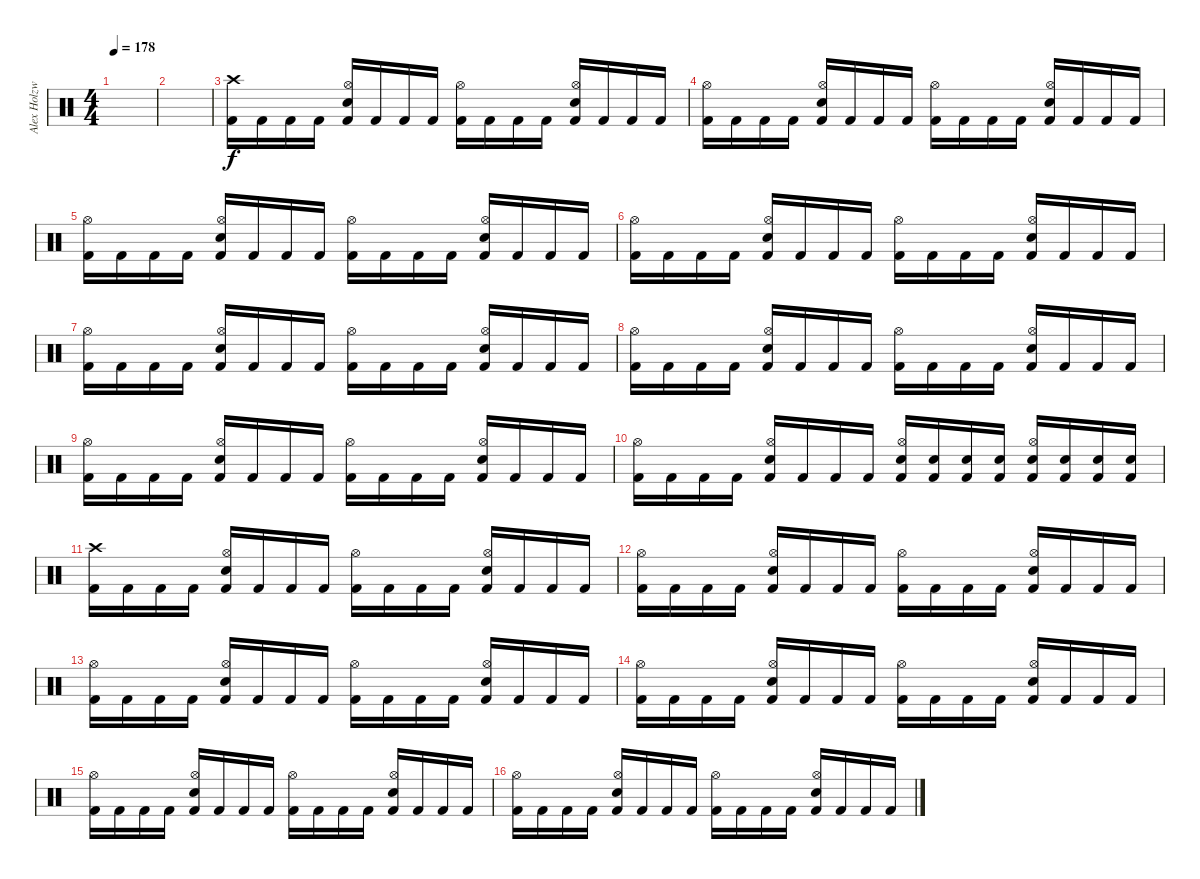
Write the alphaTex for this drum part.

\track ("Alex Holzwarth" "Alex Holzw") {instrument percussion}
\staff {score}
\articulation defaults
\ts (4 4)
\tempo 178
\clef neutral
\ks c
|
|
("Crash high (hit)" "Kick (hit) 2").16 "Kick (hit) 2".16 "Kick (hit) 2".16 "Kick (hit) 2".16 ("Hi-Hat (open)" "Electric Snare (hit)" "Kick (hit) 2").16 "Kick (hit) 2".16 "Kick (hit) 2".16 "Kick (hit) 2".16 ("Hi-Hat (open)" "Kick (hit) 2").16 "Kick (hit) 2".16 "Kick (hit) 2".16 "Kick (hit) 2".16 ("Hi-Hat (open)" "Electric Snare (hit)" "Kick (hit) 2").16 "Kick (hit) 2".16 "Kick (hit) 2".16 "Kick (hit) 2".16 |
("Hi-Hat (open)" "Kick (hit) 2").16 "Kick (hit) 2".16 "Kick (hit) 2".16 "Kick (hit) 2".16 ("Hi-Hat (open)" "Electric Snare (hit)" "Kick (hit) 2").16 "Kick (hit) 2".16 "Kick (hit) 2".16 "Kick (hit) 2".16 ("Hi-Hat (open)" "Kick (hit) 2").16 "Kick (hit) 2".16 "Kick (hit) 2".16 "Kick (hit) 2".16 ("Hi-Hat (open)" "Electric Snare (hit)" "Kick (hit) 2").16 "Kick (hit) 2".16 "Kick (hit) 2".16 "Kick (hit) 2".16 |
("Hi-Hat (open)" "Kick (hit) 2").16 "Kick (hit) 2".16 "Kick (hit) 2".16 "Kick (hit) 2".16 ("Hi-Hat (open)" "Electric Snare (hit)" "Kick (hit) 2").16 "Kick (hit) 2".16 "Kick (hit) 2".16 "Kick (hit) 2".16 ("Hi-Hat (open)" "Kick (hit) 2").16 "Kick (hit) 2".16 "Kick (hit) 2".16 "Kick (hit) 2".16 ("Hi-Hat (open)" "Electric Snare (hit)" "Kick (hit) 2").16 "Kick (hit) 2".16 "Kick (hit) 2".16 "Kick (hit) 2".16 |
("Hi-Hat (open)" "Kick (hit) 2").16 "Kick (hit) 2".16 "Kick (hit) 2".16 "Kick (hit) 2".16 ("Hi-Hat (open)" "Electric Snare (hit)" "Kick (hit) 2").16 "Kick (hit) 2".16 "Kick (hit) 2".16 "Kick (hit) 2".16 ("Hi-Hat (open)" "Kick (hit) 2").16 "Kick (hit) 2".16 "Kick (hit) 2".16 "Kick (hit) 2".16 ("Hi-Hat (open)" "Electric Snare (hit)" "Kick (hit) 2").16 "Kick (hit) 2".16 "Kick (hit) 2".16 "Kick (hit) 2".16 |
("Hi-Hat (open)" "Kick (hit) 2").16 "Kick (hit) 2".16 "Kick (hit) 2".16 "Kick (hit) 2".16 ("Hi-Hat (open)" "Electric Snare (hit)" "Kick (hit) 2").16 "Kick (hit) 2".16 "Kick (hit) 2".16 "Kick (hit) 2".16 ("Hi-Hat (open)" "Kick (hit) 2").16 "Kick (hit) 2".16 "Kick (hit) 2".16 "Kick (hit) 2".16 ("Hi-Hat (open)" "Electric Snare (hit)" "Kick (hit) 2").16 "Kick (hit) 2".16 "Kick (hit) 2".16 "Kick (hit) 2".16 |
("Hi-Hat (open)" "Kick (hit) 2").16 "Kick (hit) 2".16 "Kick (hit) 2".16 "Kick (hit) 2".16 ("Hi-Hat (open)" "Electric Snare (hit)" "Kick (hit) 2").16 "Kick (hit) 2".16 "Kick (hit) 2".16 "Kick (hit) 2".16 ("Hi-Hat (open)" "Kick (hit) 2").16 "Kick (hit) 2".16 "Kick (hit) 2".16 "Kick (hit) 2".16 ("Hi-Hat (open)" "Electric Snare (hit)" "Kick (hit) 2").16 "Kick (hit) 2".16 "Kick (hit) 2".16 "Kick (hit) 2".16 |
("Hi-Hat (open)" "Kick (hit) 2").16 "Kick (hit) 2".16 "Kick (hit) 2".16 "Kick (hit) 2".16 ("Hi-Hat (open)" "Electric Snare (hit)" "Kick (hit) 2").16 "Kick (hit) 2".16 "Kick (hit) 2".16 "Kick (hit) 2".16 ("Hi-Hat (open)" "Kick (hit) 2").16 "Kick (hit) 2".16 "Kick (hit) 2".16 "Kick (hit) 2".16 ("Hi-Hat (open)" "Electric Snare (hit)" "Kick (hit) 2").16 "Kick (hit) 2".16 "Kick (hit) 2".16 "Kick (hit) 2".16 |
("Hi-Hat (open)" "Kick (hit) 2").16 "Kick (hit) 2".16 "Kick (hit) 2".16 "Kick (hit) 2".16 ("Hi-Hat (open)" "Electric Snare (hit)" "Kick (hit) 2").16 "Kick (hit) 2".16 "Kick (hit) 2".16 "Kick (hit) 2".16 ("Hi-Hat (open)" "Electric Snare (hit)" "Kick (hit) 2").16 ("Electric Snare (hit)" "Kick (hit) 2").16 ("Electric Snare (hit)" "Kick (hit) 2").16 ("Electric Snare (hit)" "Kick (hit) 2").16 ("Hi-Hat (open)" "Electric Snare (hit)" "Kick (hit) 2").16 ("Electric Snare (hit)" "Kick (hit) 2").16 ("Electric Snare (hit)" "Kick (hit) 2").16 ("Electric Snare (hit)" "Kick (hit) 2").16 |
("Crash high (hit)" "Kick (hit) 2").16 "Kick (hit) 2".16 "Kick (hit) 2".16 "Kick (hit) 2".16 ("Hi-Hat (open)" "Electric Snare (hit)" "Kick (hit) 2").16 "Kick (hit) 2".16 "Kick (hit) 2".16 "Kick (hit) 2".16 ("Hi-Hat (open)" "Kick (hit) 2").16 "Kick (hit) 2".16 "Kick (hit) 2".16 "Kick (hit) 2".16 ("Hi-Hat (open)" "Electric Snare (hit)" "Kick (hit) 2").16 "Kick (hit) 2".16 "Kick (hit) 2".16 "Kick (hit) 2".16 |
("Hi-Hat (open)" "Kick (hit) 2").16 "Kick (hit) 2".16 "Kick (hit) 2".16 "Kick (hit) 2".16 ("Hi-Hat (open)" "Electric Snare (hit)" "Kick (hit) 2").16 "Kick (hit) 2".16 "Kick (hit) 2".16 "Kick (hit) 2".16 ("Hi-Hat (open)" "Kick (hit) 2").16 "Kick (hit) 2".16 "Kick (hit) 2".16 "Kick (hit) 2".16 ("Hi-Hat (open)" "Electric Snare (hit)" "Kick (hit) 2").16 "Kick (hit) 2".16 "Kick (hit) 2".16 "Kick (hit) 2".16 |
("Hi-Hat (open)" "Kick (hit) 2").16 "Kick (hit) 2".16 "Kick (hit) 2".16 "Kick (hit) 2".16 ("Hi-Hat (open)" "Electric Snare (hit)" "Kick (hit) 2").16 "Kick (hit) 2".16 "Kick (hit) 2".16 "Kick (hit) 2".16 ("Hi-Hat (open)" "Kick (hit) 2").16 "Kick (hit) 2".16 "Kick (hit) 2".16 "Kick (hit) 2".16 ("Hi-Hat (open)" "Electric Snare (hit)" "Kick (hit) 2").16 "Kick (hit) 2".16 "Kick (hit) 2".16 "Kick (hit) 2".16 |
("Hi-Hat (open)" "Kick (hit) 2").16 "Kick (hit) 2".16 "Kick (hit) 2".16 "Kick (hit) 2".16 ("Hi-Hat (open)" "Electric Snare (hit)" "Kick (hit) 2").16 "Kick (hit) 2".16 "Kick (hit) 2".16 "Kick (hit) 2".16 ("Hi-Hat (open)" "Kick (hit) 2").16 "Kick (hit) 2".16 "Kick (hit) 2".16 "Kick (hit) 2".16 ("Hi-Hat (open)" "Electric Snare (hit)" "Kick (hit) 2").16 "Kick (hit) 2".16 "Kick (hit) 2".16 "Kick (hit) 2".16 |
("Hi-Hat (open)" "Kick (hit) 2").16 "Kick (hit) 2".16 "Kick (hit) 2".16 "Kick (hit) 2".16 ("Hi-Hat (open)" "Electric Snare (hit)" "Kick (hit) 2").16 "Kick (hit) 2".16 "Kick (hit) 2".16 "Kick (hit) 2".16 ("Hi-Hat (open)" "Kick (hit) 2").16 "Kick (hit) 2".16 "Kick (hit) 2".16 "Kick (hit) 2".16 ("Hi-Hat (open)" "Electric Snare (hit)" "Kick (hit) 2").16 "Kick (hit) 2".16 "Kick (hit) 2".16 "Kick (hit) 2".16 |
("Hi-Hat (open)" "Kick (hit) 2").16 "Kick (hit) 2".16 "Kick (hit) 2".16 "Kick (hit) 2".16 ("Hi-Hat (open)" "Electric Snare (hit)" "Kick (hit) 2").16 "Kick (hit) 2".16 "Kick (hit) 2".16 "Kick (hit) 2".16 ("Hi-Hat (open)" "Kick (hit) 2").16 "Kick (hit) 2".16 "Kick (hit) 2".16 "Kick (hit) 2".16 ("Hi-Hat (open)" "Electric Snare (hit)" "Kick (hit) 2").16 "Kick (hit) 2".16 "Kick (hit) 2".16 "Kick (hit) 2".16
